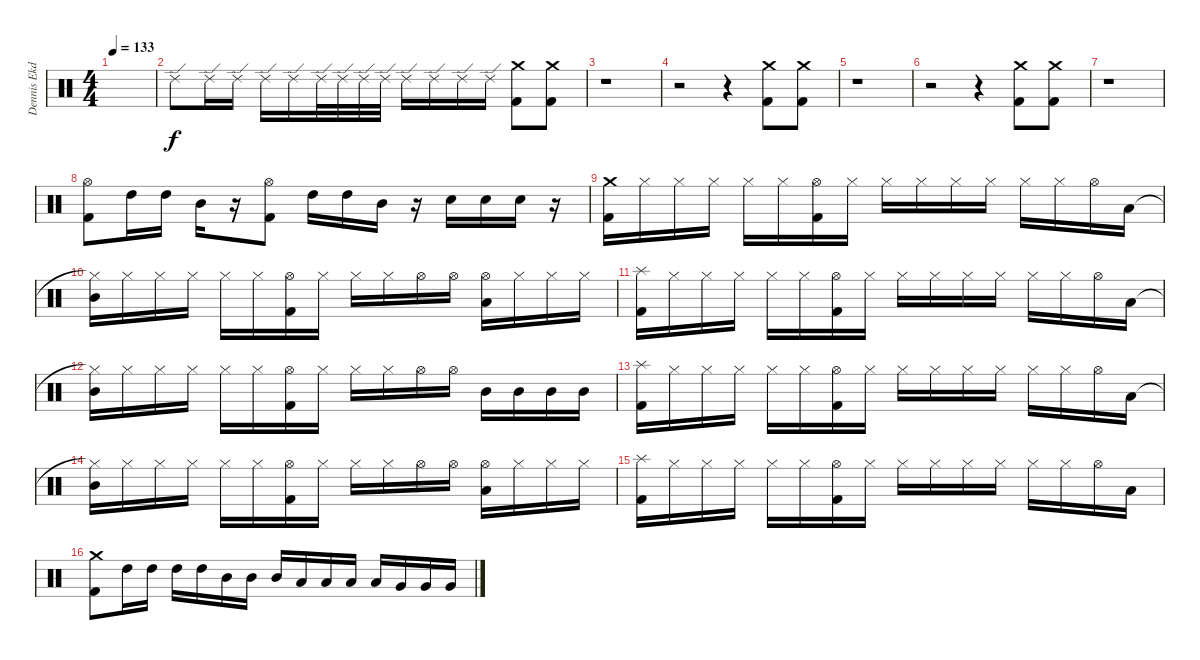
\track ("Dennis Ekdahl" "Dennis Ekd") {instrument percussion}
\staff {score}
\articulation defaults
\ts (4 4)
\tempo 133
\clef neutral
\ks c
|
"Ride (edge) 2".8 "Ride (edge) 2".16 "Ride (edge) 2".16 "Ride (edge) 2".16 "Ride (edge) 2".16 "Ride (edge) 2".32 "Ride (edge) 2".32 "Ride (edge) 2".32 "Ride (edge) 2".32 "Ride (edge) 2".16 "Ride (edge) 2".16 "Ride (edge) 2".16 "Ride (edge) 2".16 ("Crash medium (hit)" "Kick (hit) 2").8 ("Crash medium (hit)" "Kick (hit) 2").8 |
r.1 |
r.2 r.4 ("Crash medium (hit)" "Kick (hit) 2").8 ("Crash medium (hit)" "Kick (hit) 2").8 |
r.1 |
r.2 r.4 ("Crash medium (hit)" "Kick (hit) 2").8 ("Crash medium (hit)" "Kick (hit) 2").8 |
r.1 |
("Hi-Hat (open)" "Kick (hit) 2").8 "High Tom (hit)".16 "High Tom (hit)".16 "Mid Tom (hit)".16 r.16 ("Hi-Hat (open)" "Kick (hit) 2").8 "High Tom (hit)".16 "High Tom (hit)".16 "Mid Tom (hit)".16 r.16 "Snare (hit) 2".16 "Snare (hit) 2".16 "Snare (hit) 2".16 r.16 |
("Crash medium (hit)" "Kick (hit) 2").16 "Hi-Hat (closed)".16 "Hi-Hat (closed)".16 "Hi-Hat (closed)".16 "Hi-Hat (closed)".16 "Hi-Hat (closed)".16 ("Hi-Hat (open)" "Kick (hit) 2").16 "Hi-Hat (closed)".16 "Hi-Hat (closed)".16 "Hi-Hat (closed)".16 "Hi-Hat (closed)".16 "Hi-Hat (closed)".16 "Hi-Hat (closed)".16 "Hi-Hat (closed)".16 "Hi-Hat (open)".16 "Low Tom (hit)".16 |
("Hi-Hat (closed)"{t} "Mid Tom (hit)").16 "Hi-Hat (closed)".16 "Hi-Hat (closed)".16 "Hi-Hat (closed)".16 "Hi-Hat (closed)".16 "Hi-Hat (closed)".16 ("Hi-Hat (open)" "Kick (hit) 2").16 "Hi-Hat (closed)".16 "Hi-Hat (closed)".16 "Hi-Hat (closed)".16 "Hi-Hat (open)".16 "Hi-Hat (open)".16 ("Hi-Hat (open)" "Low Tom (hit)").16 "Hi-Hat (closed)".16 "Hi-Hat (closed)".16 "Hi-Hat (closed)".16 |
("Splash (hit)" "Kick (hit) 2").16 "Hi-Hat (closed)".16 "Hi-Hat (closed)".16 "Hi-Hat (closed)".16 "Hi-Hat (closed)".16 "Hi-Hat (closed)".16 ("Hi-Hat (open)" "Kick (hit) 2").16 "Hi-Hat (closed)".16 "Hi-Hat (closed)".16 "Hi-Hat (closed)".16 "Hi-Hat (closed)".16 "Hi-Hat (closed)".16 "Hi-Hat (closed)".16 "Hi-Hat (closed)".16 "Hi-Hat (open)".16 "Low Tom (hit)".16 |
("Hi-Hat (closed)"{t} "Mid Tom (hit)").16 "Hi-Hat (closed)".16 "Hi-Hat (closed)".16 "Hi-Hat (closed)".16 "Hi-Hat (closed)".16 "Hi-Hat (closed)".16 ("Hi-Hat (open)" "Kick (hit) 2").16 "Hi-Hat (closed)".16 "Hi-Hat (closed)".16 "Hi-Hat (closed)".16 "Hi-Hat (open)".16 "Hi-Hat (open)".16 "Mid Tom (hit)".16 "Mid Tom (hit)".16 "Mid Tom (hit)".16 "Mid Tom (hit)".16 |
("Splash (hit)" "Kick (hit) 2").16 "Hi-Hat (closed)".16 "Hi-Hat (closed)".16 "Hi-Hat (closed)".16 "Hi-Hat (closed)".16 "Hi-Hat (closed)".16 ("Hi-Hat (open)" "Kick (hit) 2").16 "Hi-Hat (closed)".16 "Hi-Hat (closed)".16 "Hi-Hat (closed)".16 "Hi-Hat (closed)".16 "Hi-Hat (closed)".16 "Hi-Hat (closed)".16 "Hi-Hat (closed)".16 "Hi-Hat (open)".16 "Low Tom (hit)".16 |
("Hi-Hat (closed)"{t} "Mid Tom (hit)").16 "Hi-Hat (closed)".16 "Hi-Hat (closed)".16 "Hi-Hat (closed)".16 "Hi-Hat (closed)".16 "Hi-Hat (closed)".16 ("Hi-Hat (open)" "Kick (hit) 2").16 "Hi-Hat (closed)".16 "Hi-Hat (closed)".16 "Hi-Hat (closed)".16 "Hi-Hat (open)".16 "Hi-Hat (open)".16 ("Hi-Hat (open)" "Low Tom (hit)").16 "Hi-Hat (closed)".16 "Hi-Hat (closed)".16 "Hi-Hat (closed)".16 |
("Splash (hit)" "Kick (hit) 2").16 "Hi-Hat (closed)".16 "Hi-Hat (closed)".16 "Hi-Hat (closed)".16 "Hi-Hat (closed)".16 "Hi-Hat (closed)".16 ("Hi-Hat (open)" "Kick (hit) 2").16 "Hi-Hat (closed)".16 "Hi-Hat (closed)".16 "Hi-Hat (closed)".16 "Hi-Hat (closed)".16 "Hi-Hat (closed)".16 "Hi-Hat (closed)".16 "Hi-Hat (closed)".16 "Hi-Hat (open)".16 "Low Tom (hit)".16 |
("Crash medium (hit)" "Kick (hit) 2").8 "High Tom (hit)".16 "High Tom (hit)".16 "High Tom (hit)".16 "High Tom (hit)".16 "Mid Tom (hit)".16 "Mid Tom (hit)".16 "Mid Tom (hit)".16 "Low Tom (hit)".16 "Low Tom (hit)".16 "Low Tom (hit)".16 "Low Tom (hit)".16 "Very Low Tom (hit)".16 "Very Low Tom (hit)".16 "Very Low Tom (hit)".16
